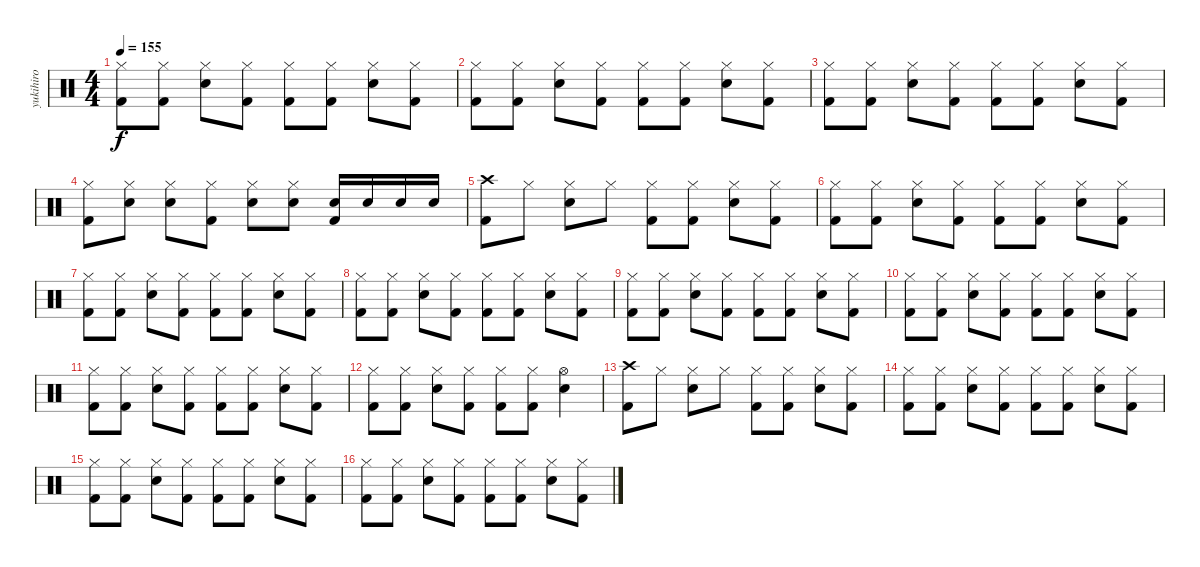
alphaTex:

\track ("yukihiro" "yukihiro") {instrument percussion}
\staff {score}
\articulation defaults
\ts (4 4)
\tempo 155
\clef neutral
\ks c
("Hi-Hat (closed)" "Kick (hit) 2").8{dy f} ("Hi-Hat (closed)" "Kick (hit) 2").8 ("Hi-Hat (closed)" "Snare (hit) 2").8 ("Hi-Hat (closed)" "Kick (hit) 2").8 ("Hi-Hat (closed)" "Kick (hit) 2").8 ("Hi-Hat (closed)" "Kick (hit) 2").8 ("Hi-Hat (closed)" "Snare (hit) 2").8 ("Hi-Hat (closed)" "Kick (hit) 2").8 |
("Hi-Hat (closed)" "Kick (hit) 2").8 ("Hi-Hat (closed)" "Kick (hit) 2").8 ("Hi-Hat (closed)" "Snare (hit) 2").8 ("Hi-Hat (closed)" "Kick (hit) 2").8 ("Hi-Hat (closed)" "Kick (hit) 2").8 ("Hi-Hat (closed)" "Kick (hit) 2").8 ("Hi-Hat (closed)" "Snare (hit) 2").8 ("Hi-Hat (closed)" "Kick (hit) 2").8 |
("Hi-Hat (closed)" "Kick (hit) 2").8 ("Hi-Hat (closed)" "Kick (hit) 2").8 ("Hi-Hat (closed)" "Snare (hit) 2").8 ("Hi-Hat (closed)" "Kick (hit) 2").8 ("Hi-Hat (closed)" "Kick (hit) 2").8 ("Hi-Hat (closed)" "Kick (hit) 2").8 ("Hi-Hat (closed)" "Snare (hit) 2").8 ("Hi-Hat (closed)" "Kick (hit) 2").8 |
("Hi-Hat (closed)" "Kick (hit) 2").8 ("Hi-Hat (closed)" "Snare (hit) 2").8 ("Hi-Hat (closed)" "Snare (hit) 2").8 ("Hi-Hat (closed)" "Kick (hit) 2").8 ("Hi-Hat (closed)" "Snare (hit) 2").8 ("Hi-Hat (closed)" "Snare (hit) 2").8 ("Snare (hit) 2" "Kick (hit) 2").16 "Snare (hit) 2".16 "Snare (hit) 2".16 "Snare (hit) 2".16 |
("Crash high (hit)" "Kick (hit) 2").8 "Hi-Hat (closed)".8 ("Hi-Hat (closed)" "Snare (hit) 2").8 "Hi-Hat (closed)".8 ("Hi-Hat (closed)" "Kick (hit) 2").8 ("Hi-Hat (closed)" "Kick (hit) 2").8 ("Hi-Hat (closed)" "Snare (hit) 2").8 ("Hi-Hat (closed)" "Kick (hit) 2").8 |
("Hi-Hat (closed)" "Kick (hit) 2").8 ("Hi-Hat (closed)" "Kick (hit) 2").8 ("Hi-Hat (closed)" "Snare (hit) 2").8 ("Hi-Hat (closed)" "Kick (hit) 2").8 ("Hi-Hat (closed)" "Kick (hit) 2").8 ("Hi-Hat (closed)" "Kick (hit) 2").8 ("Hi-Hat (closed)" "Snare (hit) 2").8 ("Hi-Hat (closed)" "Kick (hit) 2").8 |
("Hi-Hat (closed)" "Kick (hit) 2").8 ("Hi-Hat (closed)" "Kick (hit) 2").8 ("Hi-Hat (closed)" "Snare (hit) 2").8 ("Hi-Hat (closed)" "Kick (hit) 2").8 ("Hi-Hat (closed)" "Kick (hit) 2").8 ("Hi-Hat (closed)" "Kick (hit) 2").8 ("Hi-Hat (closed)" "Snare (hit) 2").8 ("Hi-Hat (closed)" "Kick (hit) 2").8 |
("Hi-Hat (closed)" "Kick (hit) 2").8 ("Hi-Hat (closed)" "Kick (hit) 2").8 ("Hi-Hat (closed)" "Snare (hit) 2").8 ("Hi-Hat (closed)" "Kick (hit) 2").8 ("Hi-Hat (closed)" "Kick (hit) 2").8 ("Hi-Hat (closed)" "Kick (hit) 2").8 ("Hi-Hat (closed)" "Snare (hit) 2").8 ("Hi-Hat (closed)" "Kick (hit) 2").8 |
("Hi-Hat (closed)" "Kick (hit) 2").8 ("Hi-Hat (closed)" "Kick (hit) 2").8 ("Hi-Hat (closed)" "Snare (hit) 2").8 ("Hi-Hat (closed)" "Kick (hit) 2").8 ("Hi-Hat (closed)" "Kick (hit) 2").8 ("Hi-Hat (closed)" "Kick (hit) 2").8 ("Hi-Hat (closed)" "Snare (hit) 2").8 ("Hi-Hat (closed)" "Kick (hit) 2").8 |
("Hi-Hat (closed)" "Kick (hit) 2").8 ("Hi-Hat (closed)" "Kick (hit) 2").8 ("Hi-Hat (closed)" "Snare (hit) 2").8 ("Hi-Hat (closed)" "Kick (hit) 2").8 ("Hi-Hat (closed)" "Kick (hit) 2").8 ("Hi-Hat (closed)" "Kick (hit) 2").8 ("Hi-Hat (closed)" "Snare (hit) 2").8 ("Hi-Hat (closed)" "Kick (hit) 2").8 |
("Hi-Hat (closed)" "Kick (hit) 2").8 ("Hi-Hat (closed)" "Kick (hit) 2").8 ("Hi-Hat (closed)" "Snare (hit) 2").8 ("Hi-Hat (closed)" "Kick (hit) 2").8 ("Hi-Hat (closed)" "Kick (hit) 2").8 ("Hi-Hat (closed)" "Kick (hit) 2").8 ("Hi-Hat (closed)" "Snare (hit) 2").8 ("Hi-Hat (closed)" "Kick (hit) 2").8 |
("Hi-Hat (closed)" "Kick (hit) 2").8 ("Hi-Hat (closed)" "Kick (hit) 2").8 ("Hi-Hat (closed)" "Snare (hit) 2").8 ("Hi-Hat (closed)" "Kick (hit) 2").8 ("Hi-Hat (closed)" "Kick (hit) 2").8 ("Hi-Hat (closed)" "Kick (hit) 2").8 ("Hi-Hat (open)" "Snare (hit) 2").4 |
("Crash high (hit)" "Kick (hit) 2").8 "Hi-Hat (closed)".8 ("Hi-Hat (closed)" "Snare (hit) 2").8 "Hi-Hat (closed)".8 ("Hi-Hat (closed)" "Kick (hit) 2").8 ("Hi-Hat (closed)" "Kick (hit) 2").8 ("Hi-Hat (closed)" "Snare (hit) 2").8 ("Hi-Hat (closed)" "Kick (hit) 2").8 |
("Hi-Hat (closed)" "Kick (hit) 2").8 ("Hi-Hat (closed)" "Kick (hit) 2").8 ("Hi-Hat (closed)" "Snare (hit) 2").8 ("Hi-Hat (closed)" "Kick (hit) 2").8 ("Hi-Hat (closed)" "Kick (hit) 2").8 ("Hi-Hat (closed)" "Kick (hit) 2").8 ("Hi-Hat (closed)" "Snare (hit) 2").8 ("Hi-Hat (closed)" "Kick (hit) 2").8 |
("Hi-Hat (closed)" "Kick (hit) 2").8 ("Hi-Hat (closed)" "Kick (hit) 2").8 ("Hi-Hat (closed)" "Snare (hit) 2").8 ("Hi-Hat (closed)" "Kick (hit) 2").8 ("Hi-Hat (closed)" "Kick (hit) 2").8 ("Hi-Hat (closed)" "Kick (hit) 2").8 ("Hi-Hat (closed)" "Snare (hit) 2").8 ("Hi-Hat (closed)" "Kick (hit) 2").8 |
("Hi-Hat (closed)" "Kick (hit) 2").8 ("Hi-Hat (closed)" "Kick (hit) 2").8 ("Hi-Hat (closed)" "Snare (hit) 2").8 ("Hi-Hat (closed)" "Kick (hit) 2").8 ("Hi-Hat (closed)" "Kick (hit) 2").8 ("Hi-Hat (closed)" "Kick (hit) 2").8 ("Hi-Hat (closed)" "Snare (hit) 2").8 ("Hi-Hat (closed)" "Kick (hit) 2").8
